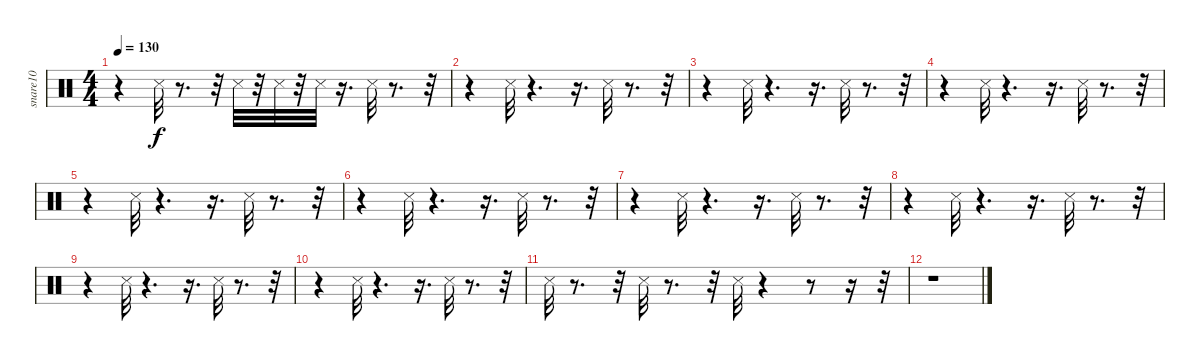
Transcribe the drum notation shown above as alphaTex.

\track ("snare10             " "snare10   ") {instrument percussion}
\staff {score}
\articulation defaults
\ts (4 4)
\tempo 130
\clef neutral
\ks c
r.4{dy f} "Metronome (hit)".32 r.8{d} r.32 "Metronome (hit)".32 r.32 "Metronome (hit)".32 r.32 "Metronome (hit)".32 r.16{d} "Metronome (hit)".32 r.8{d} r.32 |
r.4 "Metronome (hit)".32 r.4{d} r.16{d} "Metronome (hit)".32 r.8{d} r.32 |
r.4 "Metronome (hit)".32 r.4{d} r.16{d} "Metronome (hit)".32 r.8{d} r.32 |
r.4 "Metronome (hit)".32 r.4{d} r.16{d} "Metronome (hit)".32 r.8{d} r.32 |
r.4 "Metronome (hit)".32 r.4{d} r.16{d} "Metronome (hit)".32 r.8{d} r.32 |
r.4 "Metronome (hit)".32 r.4{d} r.16{d} "Metronome (hit)".32 r.8{d} r.32 |
r.4 "Metronome (hit)".32 r.4{d} r.16{d} "Metronome (hit)".32 r.8{d} r.32 |
r.4 "Metronome (hit)".32 r.4{d} r.16{d} "Metronome (hit)".32 r.8{d} r.32 |
r.4 "Metronome (hit)".32 r.4{d} r.16{d} "Metronome (hit)".32 r.8{d} r.32 |
r.4 "Metronome (hit)".32 r.4{d} r.16{d} "Metronome (hit)".32 r.8{d} r.32 |
"Metronome (hit)".32 r.8{d} r.32 "Metronome (hit)".32 r.8{d} r.32 "Metronome (hit)".32 r.4 r.8 r.16 r.32 |
r.1
